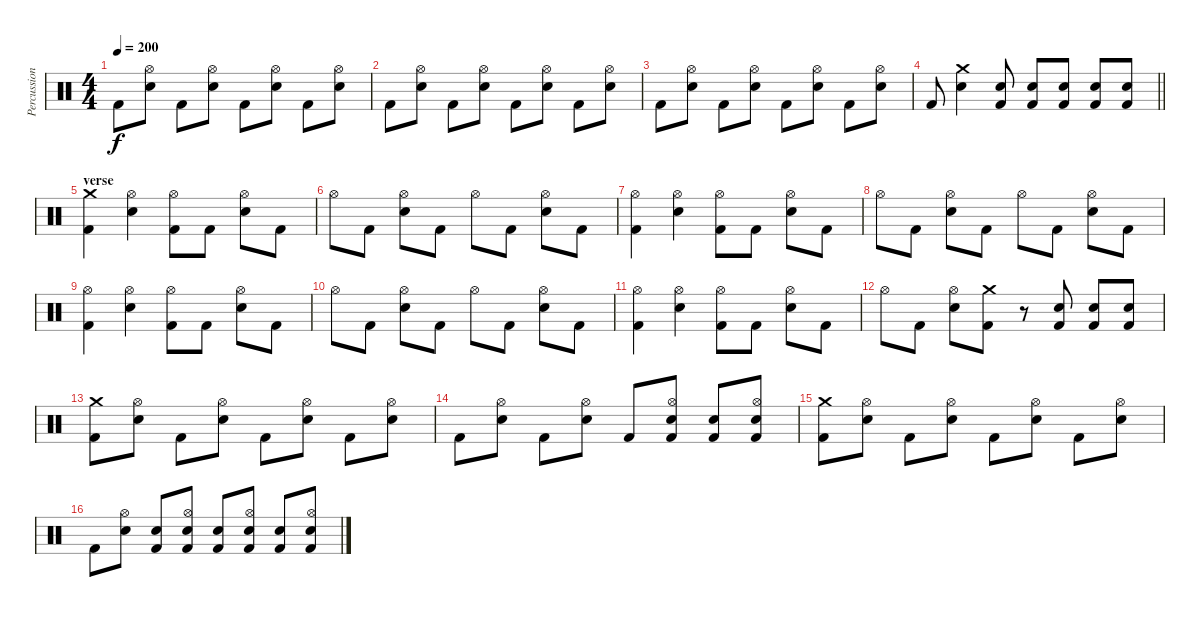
\track ("Percussion" "Percussion") {instrument percussion}
\staff {score}
\articulation defaults
\ts (4 4)
\tempo 200
\clef neutral
\ks c "Kick (hit) 2".8{dy f}
("Hi-Hat (open)" "Electric Snare (hit)").8 "Kick (hit) 2".8 ("Hi-Hat (open)" "Electric Snare (hit)").8 "Kick (hit) 2".8 ("Hi-Hat (open)" "Electric Snare (hit)").8 "Kick (hit) 2".8 ("Hi-Hat (open)" "Electric Snare (hit)").8 |
"Kick (hit) 2".8 ("Hi-Hat (open)" "Electric Snare (hit)").8 "Kick (hit) 2".8 ("Hi-Hat (open)" "Electric Snare (hit)").8 "Kick (hit) 2".8 ("Hi-Hat (open)" "Electric Snare (hit)").8 "Kick (hit) 2".8 ("Hi-Hat (open)" "Electric Snare (hit)").8 |
"Kick (hit) 2".8 ("Hi-Hat (open)" "Electric Snare (hit)").8 "Kick (hit) 2".8 ("Hi-Hat (open)" "Electric Snare (hit)").8 "Kick (hit) 2".8 ("Hi-Hat (open)" "Electric Snare (hit)").8 "Kick (hit) 2".8 ("Hi-Hat (open)" "Electric Snare (hit)").8 |
\barLineRight lightlight "Kick (hit) 2".8
("Crash medium (hit)" "Electric Snare (hit)").4 ("Electric Snare (hit)" "Kick (hit) 2").8 ("Electric Snare (hit)" "Kick (hit) 2").8 ("Electric Snare (hit)" "Kick (hit) 2").8 ("Electric Snare (hit)" "Kick (hit) 2").8 ("Electric Snare (hit)" "Kick (hit) 2").8 |
\section ("" "verse")
("Crash medium (hit)" "Kick (hit) 2").4 ("Hi-Hat (open)" "Electric Snare (hit)").4 ("Hi-Hat (open)" "Kick (hit) 2").8 "Kick (hit) 2".8 ("Hi-Hat (open)" "Electric Snare (hit)").8 "Kick (hit) 2".8 |
"Hi-Hat (open)".8 "Kick (hit) 2".8 ("Hi-Hat (open)" "Electric Snare (hit)").8 "Kick (hit) 2".8 "Hi-Hat (open)".8 "Kick (hit) 2".8 ("Hi-Hat (open)" "Electric Snare (hit)").8 "Kick (hit) 2".8 |
("Hi-Hat (open)" "Kick (hit) 2").4 ("Hi-Hat (open)" "Electric Snare (hit)").4 ("Hi-Hat (open)" "Kick (hit) 2").8 "Kick (hit) 2".8 ("Hi-Hat (open)" "Electric Snare (hit)").8 "Kick (hit) 2".8 |
"Hi-Hat (open)".8 "Kick (hit) 2".8 ("Hi-Hat (open)" "Electric Snare (hit)").8 "Kick (hit) 2".8 "Hi-Hat (open)".8 "Kick (hit) 2".8 ("Hi-Hat (open)" "Electric Snare (hit)").8 "Kick (hit) 2".8 |
("Hi-Hat (open)" "Kick (hit) 2").4 ("Hi-Hat (open)" "Electric Snare (hit)").4 ("Hi-Hat (open)" "Kick (hit) 2").8 "Kick (hit) 2".8 ("Hi-Hat (open)" "Electric Snare (hit)").8 "Kick (hit) 2".8 |
"Hi-Hat (open)".8 "Kick (hit) 2".8 ("Hi-Hat (open)" "Electric Snare (hit)").8 "Kick (hit) 2".8 "Hi-Hat (open)".8 "Kick (hit) 2".8 ("Hi-Hat (open)" "Electric Snare (hit)").8 "Kick (hit) 2".8 |
("Hi-Hat (open)" "Kick (hit) 2").4 ("Hi-Hat (open)" "Electric Snare (hit)").4 ("Hi-Hat (open)" "Kick (hit) 2").8 "Kick (hit) 2".8 ("Hi-Hat (open)" "Electric Snare (hit)").8 "Kick (hit) 2".8 |
"Hi-Hat (open)".8 "Kick (hit) 2".8 ("Hi-Hat (open)" "Electric Snare (hit)").8 ("Crash medium (hit)" "Kick (hit) 2").8 r.8 ("Electric Snare (hit)" "Kick (hit) 2").8 ("Electric Snare (hit)" "Kick (hit) 2").8 ("Electric Snare (hit)" "Kick (hit) 2").8 |
("Crash medium (hit)" "Kick (hit) 2").8 ("Hi-Hat (open)" "Electric Snare (hit)").8 "Kick (hit) 2".8 ("Hi-Hat (open)" "Electric Snare (hit)").8 "Kick (hit) 2".8 ("Hi-Hat (open)" "Electric Snare (hit)").8 "Kick (hit) 2".8 ("Hi-Hat (open)" "Electric Snare (hit)").8 |
"Kick (hit) 2".8 ("Hi-Hat (open)" "Electric Snare (hit)").8 "Kick (hit) 2".8 ("Hi-Hat (open)" "Electric Snare (hit)").8 "Kick (hit) 2".8 ("Hi-Hat (open)" "Electric Snare (hit)" "Kick (hit) 2").8 ("Electric Snare (hit)" "Kick (hit) 2").8 ("Hi-Hat (open)" "Electric Snare (hit)" "Kick (hit) 2").8 |
("Crash medium (hit)" "Kick (hit) 2").8 ("Hi-Hat (open)" "Electric Snare (hit)").8 "Kick (hit) 2".8 ("Hi-Hat (open)" "Electric Snare (hit)").8 "Kick (hit) 2".8 ("Hi-Hat (open)" "Electric Snare (hit)").8 "Kick (hit) 2".8 ("Hi-Hat (open)" "Electric Snare (hit)").8 |
"Kick (hit) 2".8 ("Hi-Hat (open)" "Electric Snare (hit)").8 ("Electric Snare (hit)" "Kick (hit) 2").8 ("Hi-Hat (open)" "Electric Snare (hit)" "Kick (hit) 2").8 ("Electric Snare (hit)" "Kick (hit) 2").8 ("Hi-Hat (open)" "Electric Snare (hit)" "Kick (hit) 2").8 ("Electric Snare (hit)" "Kick (hit) 2").8 ("Hi-Hat (open)" "Electric Snare (hit)" "Kick (hit) 2").8
